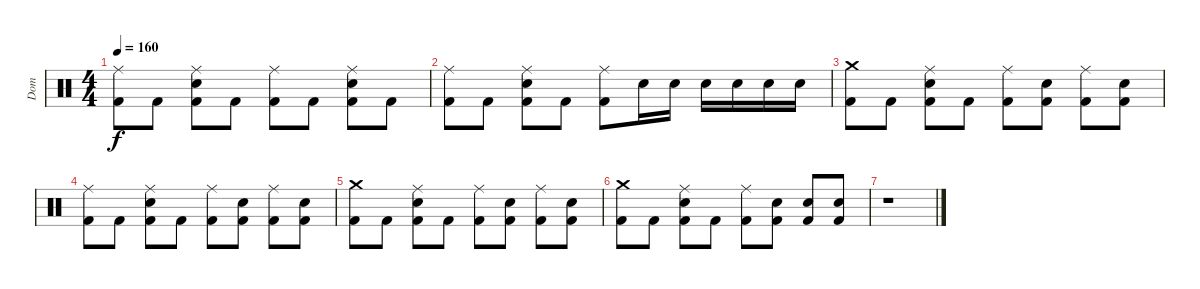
\track ("Dom" "Dom") {instrument percussion}
\staff {score}
\articulation defaults
\ts (4 4)
\tempo 160
\clef neutral
\ks c
("Ride (middle)" "Kick (hit) 2").8{dy f} "Kick (hit) 2".8 ("Ride (middle)" "Snare (hit) 2" "Kick (hit) 2").8 "Kick (hit) 2".8 ("Ride (middle)" "Kick (hit) 2").8 "Kick (hit) 2".8 ("Ride (middle)" "Snare (hit) 2" "Kick (hit) 2").8 "Kick (hit) 2".8 |
("Ride (middle)" "Kick (hit) 2").8 "Kick (hit) 2".8 ("Ride (middle)" "Snare (hit) 2" "Kick (hit) 2").8 "Kick (hit) 2".8 ("Ride (middle)" "Kick (hit) 2").8 "Snare (hit) 2".16 "Snare (hit) 2".16 "Snare (hit) 2".16 "Snare (hit) 2".16 "Snare (hit) 2".16 "Snare (hit) 2".16 |
("Crash medium (hit)" "Kick (hit) 2").8 "Kick (hit) 2".8 ("Ride (middle)" "Snare (hit) 2" "Kick (hit) 2").8 "Kick (hit) 2".8 ("Ride (middle)" "Kick (hit) 2").8 ("Snare (hit) 2" "Kick (hit) 2").8 ("Ride (middle)" "Kick (hit) 2").8 ("Snare (hit) 2" "Kick (hit) 2").8 |
("Ride (middle)" "Kick (hit) 2").8 "Kick (hit) 2".8 ("Ride (middle)" "Snare (hit) 2" "Kick (hit) 2").8 "Kick (hit) 2".8 ("Ride (middle)" "Kick (hit) 2").8 ("Snare (hit) 2" "Kick (hit) 2").8 ("Ride (middle)" "Kick (hit) 2").8 ("Snare (hit) 2" "Kick (hit) 2").8 |
("Crash medium (hit)" "Kick (hit) 2").8 "Kick (hit) 2".8 ("Ride (middle)" "Snare (hit) 2" "Kick (hit) 2").8 "Kick (hit) 2".8 ("Ride (middle)" "Kick (hit) 2").8 ("Snare (hit) 2" "Kick (hit) 2").8 ("Ride (middle)" "Kick (hit) 2").8 ("Snare (hit) 2" "Kick (hit) 2").8 |
("Crash medium (hit)" "Kick (hit) 2").8 "Kick (hit) 2".8 ("Ride (middle)" "Snare (hit) 2" "Kick (hit) 2").8 "Kick (hit) 2".8 ("Ride (middle)" "Kick (hit) 2").8 ("Snare (hit) 2" "Kick (hit) 2").8 ("Snare (hit) 2" "Kick (hit) 2").8 ("Snare (hit) 2" "Kick (hit) 2").8 |
r.1
